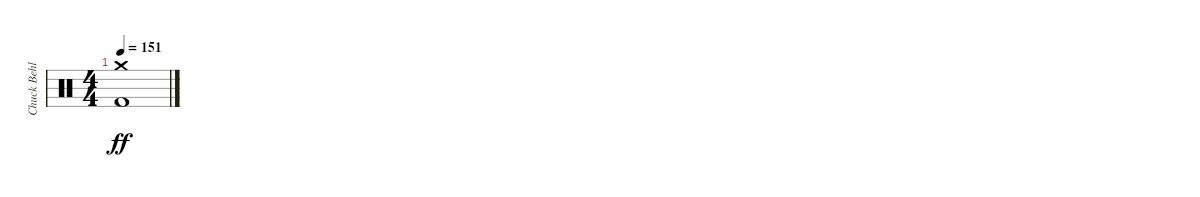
\track ("Chuck Behler" "Chuck Behl") {instrument percussion}
\staff {score}
\articulation defaults
\ts (4 4)
\tempo 151
\clef neutral
\ks c
("Crash medium (hit)" "Kick (hit) 2").1{dy ff volume 0}
